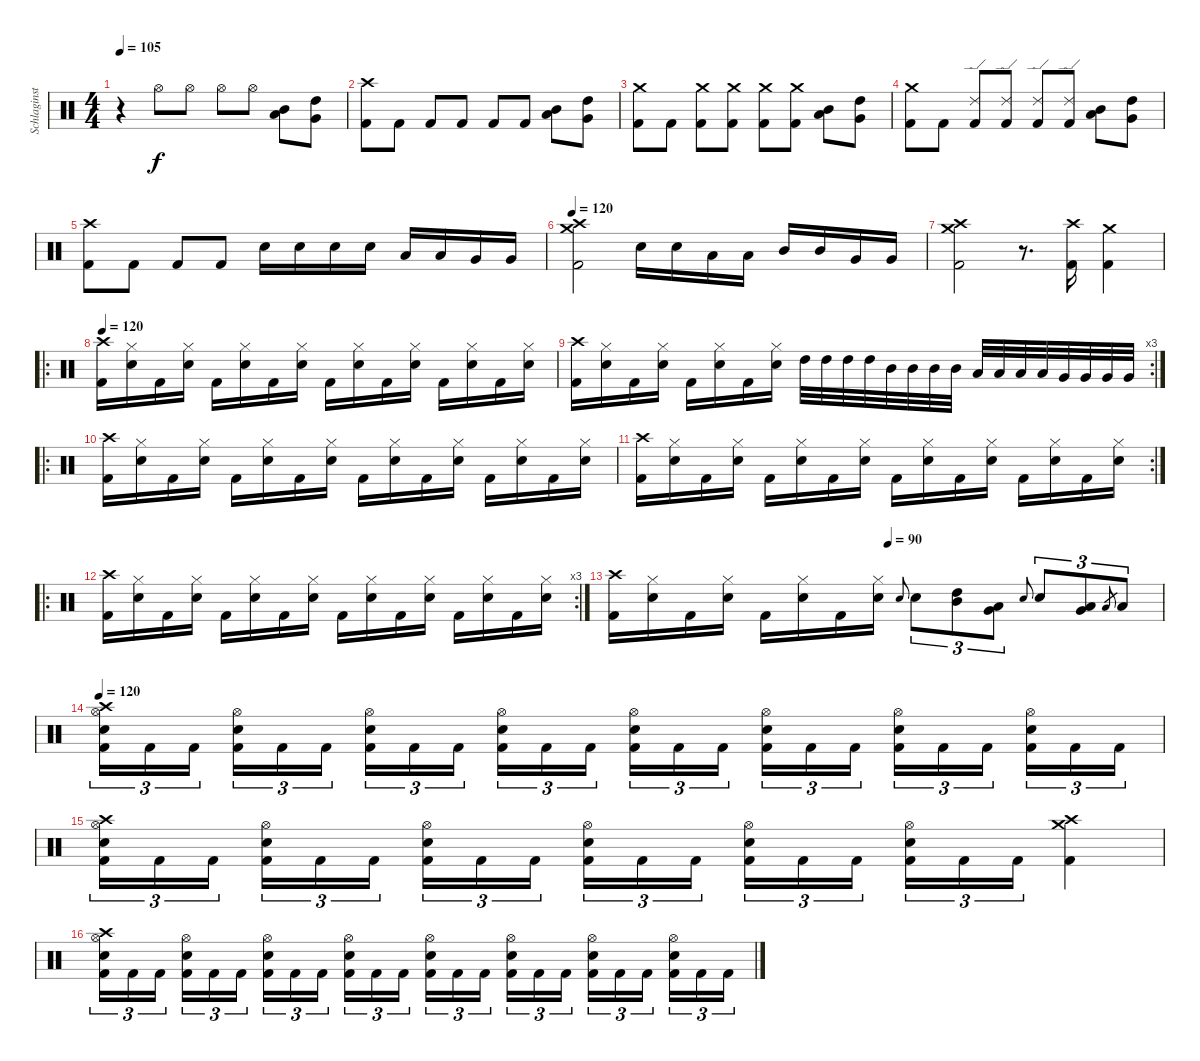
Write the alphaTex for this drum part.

\track ("Schlaginstrumente - Auswahl" "Schlaginst") {instrument percussion}
\staff {score}
\articulation defaults
\ts (4 4)
\tempo 105
\clef neutral
\ks c
r.4{dy f} "Hi-Hat (open)".8 "Hi-Hat (open)".8 "Hi-Hat (open)".8 "Hi-Hat (open)".8 ("Low Tom (hit)" "Mid Tom (hit)").8 ("Very Low Tom (hit)" "High Tom (hit)").8 |
("Crash high (hit)" "Kick (hit) 2").8 "Kick (hit) 2".8 "Kick (hit) 2".8 "Kick (hit) 2".8 "Kick (hit) 2".8 "Kick (hit) 2".8 ("Low Tom (hit)" "Mid Tom (hit)").8 ("Very Low Tom (hit)" "High Tom (hit)").8 |
("Crash medium (hit)" "Kick (hit) 2").8 "Kick (hit) 2".8 ("Crash medium (hit)" "Kick (hit) 2").8 ("Crash medium (hit)" "Kick (hit) 2").8 ("Crash medium (hit)" "Kick (hit) 2").8 ("Crash medium (hit)" "Kick (hit) 2").8 ("Low Tom (hit)" "Mid Tom (hit)").8 ("Very Low Tom (hit)" "High Tom (hit)").8 |
("Crash medium (hit)" "Kick (hit) 2").8 "Kick (hit) 2".8 ("Ride (edge) 2" "Kick (hit) 2").8 ("Ride (edge) 2" "Kick (hit) 2").8 ("Ride (edge) 2" "Kick (hit) 2").8 ("Ride (edge) 2" "Kick (hit) 2").8 ("Low Tom (hit)" "Mid Tom (hit)").8 ("Very Low Tom (hit)" "High Tom (hit)").8 |
("Crash high (hit)" "Kick (hit) 2").8 "Kick (hit) 2".8 "Kick (hit) 2".8 "Kick (hit) 2".8 "Snare (hit) 2".16 "Snare (hit) 2".16 "Snare (hit) 2".16 "Snare (hit) 2".16 "Low Tom (hit)".16 "Low Tom (hit)".16 "Very Low Tom (hit)".16 "Very Low Tom (hit)".16 |
\tempo 120
("Crash medium (hit)" "Crash high (hit)" "Kick (hit) 2").2 "Snare (hit) 2".16 "Snare (hit) 2".16 "Low Tom (hit)".16 "Low Tom (hit)".16 "Mid Tom (hit)".16 "Mid Tom (hit)".16 "Very Low Tom (hit)".16 "Very Low Tom (hit)".16 |
("Crash medium (hit)" "Crash high (hit)" "Kick (hit) 2").2 r.8{d} ("Crash high (hit)" "Kick (hit) 2").16 ("Crash medium (hit)" "Kick (hit) 2").4 |
\ro
\tempo 120
("Crash high (hit)" "Kick (hit) 2").16 ("Hi-Hat (closed)" "Snare (hit) 2").16 "Kick (hit) 2".16 ("Hi-Hat (closed)" "Snare (hit) 2").16 "Kick (hit) 2".16 ("Hi-Hat (closed)" "Snare (hit) 2").16 "Kick (hit) 2".16 ("Hi-Hat (closed)" "Snare (hit) 2").16 "Kick (hit) 2".16 ("Hi-Hat (closed)" "Snare (hit) 2").16 "Kick (hit) 2".16 ("Hi-Hat (closed)" "Snare (hit) 2").16 "Kick (hit) 2".16 ("Hi-Hat (closed)" "Snare (hit) 2").16 "Kick (hit) 2".16 ("Hi-Hat (closed)" "Snare (hit) 2").16 |
\rc 3
("Crash high (hit)" "Kick (hit) 2").16 ("Hi-Hat (closed)" "Snare (hit) 2").16 "Kick (hit) 2".16 ("Hi-Hat (closed)" "Snare (hit) 2").16 "Kick (hit) 2".16 ("Hi-Hat (closed)" "Snare (hit) 2").16 "Kick (hit) 2".16 ("Hi-Hat (closed)" "Snare (hit) 2").16 "High Tom (hit)".32 "High Tom (hit)".32 "High Tom (hit)".32 "High Tom (hit)".32 "Mid Tom (hit)".32 "Mid Tom (hit)".32 "Mid Tom (hit)".32 "Mid Tom (hit)".32 "Low Tom (hit)".32 "Low Tom (hit)".32 "Low Tom (hit)".32 "Low Tom (hit)".32 "Very Low Tom (hit)".32 "Very Low Tom (hit)".32 "Very Low Tom (hit)".32 "Very Low Tom (hit)".32 |
\ro
("Crash high (hit)" "Kick (hit) 2").16 ("Hi-Hat (closed)" "Snare (hit) 2").16 "Kick (hit) 2".16 ("Hi-Hat (closed)" "Snare (hit) 2").16 "Kick (hit) 2".16 ("Hi-Hat (closed)" "Snare (hit) 2").16 "Kick (hit) 2".16 ("Hi-Hat (closed)" "Snare (hit) 2").16 "Kick (hit) 2".16 ("Hi-Hat (closed)" "Snare (hit) 2").16 "Kick (hit) 2".16 ("Hi-Hat (closed)" "Snare (hit) 2").16 "Kick (hit) 2".16 ("Hi-Hat (closed)" "Snare (hit) 2").16 "Kick (hit) 2".16 ("Hi-Hat (closed)" "Snare (hit) 2").16 |
\rc 2
("Crash high (hit)" "Kick (hit) 2").16 ("Hi-Hat (closed)" "Snare (hit) 2").16 "Kick (hit) 2".16 ("Hi-Hat (closed)" "Snare (hit) 2").16 "Kick (hit) 2".16 ("Hi-Hat (closed)" "Snare (hit) 2").16 "Kick (hit) 2".16 ("Hi-Hat (closed)" "Snare (hit) 2").16 "Kick (hit) 2".16 ("Hi-Hat (closed)" "Snare (hit) 2").16 "Kick (hit) 2".16 ("Hi-Hat (closed)" "Snare (hit) 2").16 "Kick (hit) 2".16 ("Hi-Hat (closed)" "Snare (hit) 2").16 "Kick (hit) 2".16 ("Hi-Hat (closed)" "Snare (hit) 2").16 |
\ro
\rc 3
("Crash high (hit)" "Kick (hit) 2").16 ("Hi-Hat (closed)" "Snare (hit) 2").16 "Kick (hit) 2".16 ("Hi-Hat (closed)" "Snare (hit) 2").16 "Kick (hit) 2".16 ("Hi-Hat (closed)" "Snare (hit) 2").16 "Kick (hit) 2".16 ("Hi-Hat (closed)" "Snare (hit) 2").16 "Kick (hit) 2".16 ("Hi-Hat (closed)" "Snare (hit) 2").16 "Kick (hit) 2".16 ("Hi-Hat (closed)" "Snare (hit) 2").16 "Kick (hit) 2".16 ("Hi-Hat (closed)" "Snare (hit) 2").16 "Kick (hit) 2".16 ("Hi-Hat (closed)" "Snare (hit) 2").16 |
\tempo (90 0.5)
("Crash high (hit)" "Kick (hit) 2").16 ("Hi-Hat (closed)" "Snare (hit) 2").16 "Kick (hit) 2".16 ("Hi-Hat (closed)" "Snare (hit) 2").16 "Kick (hit) 2".16 ("Hi-Hat (closed)" "Snare (hit) 2").16 "Kick (hit) 2".16 ("Hi-Hat (closed)" "Snare (hit) 2").16 "Snare (hit) 2".8{gr onbeat} "Snare (hit) 2".8{tu (3 2)} ("Mid Tom (hit)" "High Tom (hit)").8{tu (3 2)} ("Very Low Tom (hit)" "Low Tom (hit)").8{tu (3 2)} "Snare (hit) 2".8{gr onbeat} "Snare (hit) 2".8{tu (3 2)} ("Low Tom (hit)" "Very Low Tom (hit)").8{tu (3 2)} "Low Floor Tom (hit)".8{gr} "Low Floor Tom (hit)".8{tu (3 2)} |
\tempo 120
("Crash high (hit)" "Hi-Hat (open)" "Snare (hit) 2" "Kick (hit) 2").16{tu (3 2)} "Kick (hit) 2".16{tu (3 2)} "Kick (hit) 2".16{tu (3 2) beam splitsecondary} ("Hi-Hat (open)" "Snare (hit) 2" "Kick (hit) 2").16{tu (3 2)} "Kick (hit) 2".16{tu (3 2)} "Kick (hit) 2".16{tu (3 2)} ("Hi-Hat (open)" "Snare (hit) 2" "Kick (hit) 2").16{tu (3 2)} "Kick (hit) 2".16{tu (3 2)} "Kick (hit) 2".16{tu (3 2) beam splitsecondary} ("Hi-Hat (open)" "Snare (hit) 2" "Kick (hit) 2").16{tu (3 2)} "Kick (hit) 2".16{tu (3 2)} "Kick (hit) 2".16{tu (3 2)} ("Hi-Hat (open)" "Snare (hit) 2" "Kick (hit) 2").16{tu (3 2)} "Kick (hit) 2".16{tu (3 2)} "Kick (hit) 2".16{tu (3 2) beam splitsecondary} ("Hi-Hat (open)" "Snare (hit) 2" "Kick (hit) 2").16{tu (3 2)} "Kick (hit) 2".16{tu (3 2)} "Kick (hit) 2".16{tu (3 2)} ("Hi-Hat (open)" "Snare (hit) 2" "Kick (hit) 2").16{tu (3 2)} "Kick (hit) 2".16{tu (3 2)} "Kick (hit) 2".16{tu (3 2) beam splitsecondary} ("Hi-Hat (open)" "Snare (hit) 2" "Kick (hit) 2").16{tu (3 2)} "Kick (hit) 2".16{tu (3 2)} "Kick (hit) 2".16{tu (3 2)} |
("Crash high (hit)" "Hi-Hat (open)" "Snare (hit) 2" "Kick (hit) 2").16{tu (3 2)} "Kick (hit) 2".16{tu (3 2)} "Kick (hit) 2".16{tu (3 2) beam splitsecondary} ("Hi-Hat (open)" "Snare (hit) 2" "Kick (hit) 2").16{tu (3 2)} "Kick (hit) 2".16{tu (3 2)} "Kick (hit) 2".16{tu (3 2)} ("Hi-Hat (open)" "Snare (hit) 2" "Kick (hit) 2").16{tu (3 2)} "Kick (hit) 2".16{tu (3 2)} "Kick (hit) 2".16{tu (3 2) beam splitsecondary} ("Hi-Hat (open)" "Snare (hit) 2" "Kick (hit) 2").16{tu (3 2)} "Kick (hit) 2".16{tu (3 2)} "Kick (hit) 2".16{tu (3 2)} ("Hi-Hat (open)" "Snare (hit) 2" "Kick (hit) 2").16{tu (3 2)} "Kick (hit) 2".16{tu (3 2)} "Kick (hit) 2".16{tu (3 2) beam splitsecondary} ("Hi-Hat (open)" "Snare (hit) 2" "Kick (hit) 2").16{tu (3 2)} "Kick (hit) 2".16{tu (3 2)} "Kick (hit) 2".16{tu (3 2)} ("Crash medium (hit)" "Crash high (hit)" "Kick (hit) 2").4 |
("Crash high (hit)" "Hi-Hat (open)" "Snare (hit) 2" "Kick (hit) 2").16{tu (3 2)} "Kick (hit) 2".16{tu (3 2)} "Kick (hit) 2".16{tu (3 2) beam splitsecondary} ("Hi-Hat (open)" "Snare (hit) 2" "Kick (hit) 2").16{tu (3 2)} "Kick (hit) 2".16{tu (3 2)} "Kick (hit) 2".16{tu (3 2)} ("Hi-Hat (open)" "Snare (hit) 2" "Kick (hit) 2").16{tu (3 2)} "Kick (hit) 2".16{tu (3 2)} "Kick (hit) 2".16{tu (3 2) beam splitsecondary} ("Hi-Hat (open)" "Snare (hit) 2" "Kick (hit) 2").16{tu (3 2)} "Kick (hit) 2".16{tu (3 2)} "Kick (hit) 2".16{tu (3 2)} ("Hi-Hat (open)" "Snare (hit) 2" "Kick (hit) 2").16{tu (3 2)} "Kick (hit) 2".16{tu (3 2)} "Kick (hit) 2".16{tu (3 2) beam splitsecondary} ("Hi-Hat (open)" "Snare (hit) 2" "Kick (hit) 2").16{tu (3 2)} "Kick (hit) 2".16{tu (3 2)} "Kick (hit) 2".16{tu (3 2)} ("Hi-Hat (open)" "Snare (hit) 2" "Kick (hit) 2").16{tu (3 2)} "Kick (hit) 2".16{tu (3 2)} "Kick (hit) 2".16{tu (3 2) beam splitsecondary} ("Hi-Hat (open)" "Snare (hit) 2" "Kick (hit) 2").16{tu (3 2)} "Kick (hit) 2".16{tu (3 2)} "Kick (hit) 2".16{tu (3 2)}
